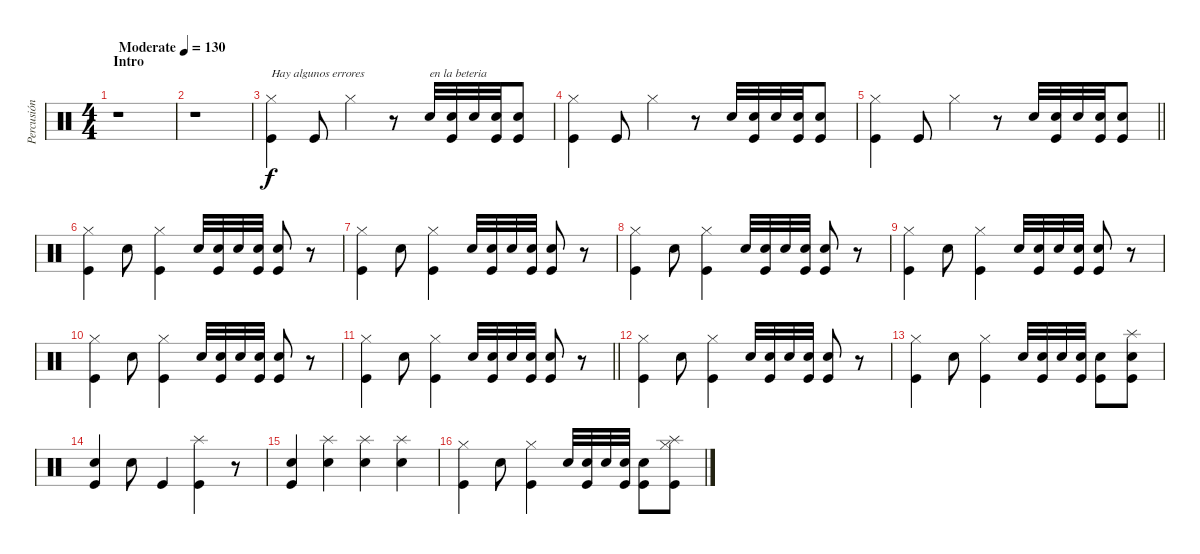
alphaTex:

\track ("Percusión" "Percusión") {instrument percussion}
\staff {score}
\articulation defaults
\ts (4 4)
\section ("" "Intro")
\tempo (130 "Moderate")
\clef neutral
\ks c
r.1{dy f} |
r.1 |
("Hi-Hat (closed)" "Kick (hit)").4{txt "Hay algunos errores"} "Kick (hit)".8 "Hi-Hat (closed)".4 r.8 "Snare (hit) 2".32{txt "en la beteria"} ("Snare (hit) 2" "Kick (hit)").32 "Snare (hit) 2".32 ("Snare (hit) 2" "Kick (hit)").32 ("Snare (hit) 2" "Kick (hit)").8 |
("Hi-Hat (closed)" "Kick (hit)").4 "Kick (hit)".8 "Hi-Hat (closed)".4 r.8 "Snare (hit) 2".32 ("Snare (hit) 2" "Kick (hit)").32 "Snare (hit) 2".32 ("Snare (hit) 2" "Kick (hit)").32 ("Snare (hit) 2" "Kick (hit)").8 |
\barLineRight lightlight
("Hi-Hat (closed)" "Kick (hit)").4 "Kick (hit)".8 "Hi-Hat (closed)".4 r.8 "Snare (hit) 2".32 ("Snare (hit) 2" "Kick (hit)").32 "Snare (hit) 2".32 ("Snare (hit) 2" "Kick (hit)").32 ("Snare (hit) 2" "Kick (hit)").8 |
\section ("" "")
("Hi-Hat (closed)" "Kick (hit)").4 "Snare (hit) 2".8 ("Hi-Hat (closed)" "Kick (hit)").4 "Snare (hit) 2".32 ("Snare (hit) 2" "Kick (hit)").32 "Snare (hit) 2".32 ("Snare (hit) 2" "Kick (hit)").32 ("Snare (hit) 2" "Kick (hit)").8 r.8 |
("Hi-Hat (closed)" "Kick (hit)").4 "Snare (hit) 2".8 ("Hi-Hat (closed)" "Kick (hit)").4 "Snare (hit) 2".32 ("Snare (hit) 2" "Kick (hit)").32 "Snare (hit) 2".32 ("Snare (hit) 2" "Kick (hit)").32 ("Snare (hit) 2" "Kick (hit)").8 r.8 |
("Hi-Hat (closed)" "Kick (hit)").4 "Snare (hit) 2".8 ("Hi-Hat (closed)" "Kick (hit)").4 "Snare (hit) 2".32 ("Snare (hit) 2" "Kick (hit)").32 "Snare (hit) 2".32 ("Snare (hit) 2" "Kick (hit)").32 ("Snare (hit) 2" "Kick (hit)").8 r.8 |
("Hi-Hat (closed)" "Kick (hit)").4 "Snare (hit) 2".8 ("Hi-Hat (closed)" "Kick (hit)").4 "Snare (hit) 2".32 ("Snare (hit) 2" "Kick (hit)").32 "Snare (hit) 2".32 ("Snare (hit) 2" "Kick (hit)").32 ("Snare (hit) 2" "Kick (hit)").8 r.8 |
("Hi-Hat (closed)" "Kick (hit)").4 "Snare (hit) 2".8 ("Hi-Hat (closed)" "Kick (hit)").4 "Snare (hit) 2".32 ("Snare (hit) 2" "Kick (hit)").32 "Snare (hit) 2".32 ("Snare (hit) 2" "Kick (hit)").32 ("Snare (hit) 2" "Kick (hit)").8 r.8 |
\barLineRight lightlight
("Hi-Hat (closed)" "Kick (hit)").4 "Snare (hit) 2".8 ("Hi-Hat (closed)" "Kick (hit)").4 "Snare (hit) 2".32 ("Snare (hit) 2" "Kick (hit)").32 "Snare (hit) 2".32 ("Snare (hit) 2" "Kick (hit)").32 ("Snare (hit) 2" "Kick (hit)").8 r.8 |
\section ("" "")
("Hi-Hat (closed)" "Kick (hit)").4 "Snare (hit) 2".8 ("Hi-Hat (closed)" "Kick (hit)").4 "Snare (hit) 2".32 ("Snare (hit) 2" "Kick (hit)").32 "Snare (hit) 2".32 ("Snare (hit) 2" "Kick (hit)").32 ("Snare (hit) 2" "Kick (hit)").8 r.8 |
("Hi-Hat (closed)" "Kick (hit)").4 "Snare (hit) 2".8 ("Hi-Hat (closed)" "Kick (hit)").4 "Snare (hit) 2".32 ("Snare (hit) 2" "Kick (hit)").32 "Snare (hit) 2".32 ("Snare (hit) 2" "Kick (hit)").32 ("Snare (hit) 2" "Kick (hit)").8 ("Splash (hit)" "Snare (hit) 2" "Kick (hit)").8 |
("Snare (hit) 2" "Kick (hit)").4 "Snare (hit) 2".8 "Kick (hit)".4 ("Splash (hit)" "Kick (hit)").4 r.8 |
("Snare (hit) 2" "Kick (hit)").4 ("Splash (hit)" "Snare (hit) 2").4 ("Splash (hit)" "Snare (hit) 2").4 ("Splash (hit)" "Snare (hit) 2").4 |
("Hi-Hat (closed)" "Kick (hit)").4 "Snare (hit) 2".8 ("Hi-Hat (closed)" "Kick (hit)").4 "Snare (hit) 2".32 ("Snare (hit) 2" "Kick (hit)").32 "Snare (hit) 2".32 ("Snare (hit) 2" "Kick (hit)").32 ("Snare (hit) 2" "Kick (hit)").8 ("Splash (hit)" "Hi-Hat (closed)" "Kick (hit)").8
